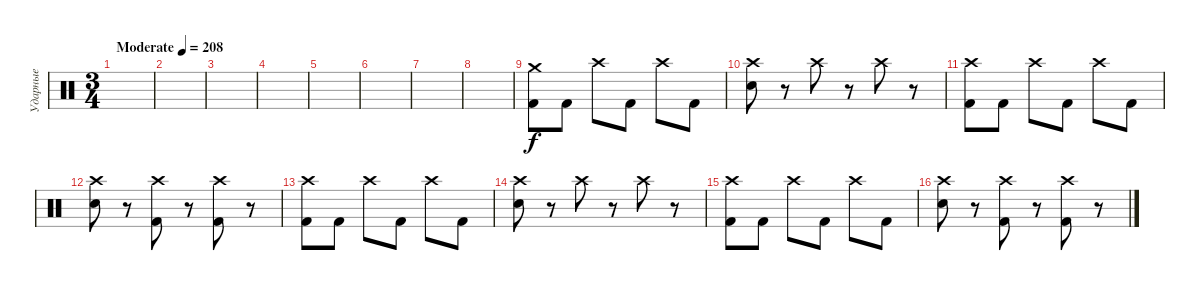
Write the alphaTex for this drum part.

\track ("Ударные" "Ударные") {instrument percussion}
\staff {score}
\articulation defaults
\ts (3 4)
\tempo (208 "Moderate")
\clef neutral
\ks c
|
|
|
|
|
|
|
|
("Crash medium (hit)" "Kick (hit) 2").8 "Kick (hit) 2".8 "Crash high (hit)".8 "Kick (hit) 2".8 "Crash high (hit)".8 "Kick (hit) 2".8 |
("Crash high (hit)" "Electric Snare (hit)").8 r.8 "Crash high (hit)".8 r.8 "Crash high (hit)".8 r.8 |
("Crash high (hit)" "Kick (hit) 2").8 "Kick (hit) 2".8 "Crash high (hit)".8 "Kick (hit) 2".8 "Crash high (hit)".8 "Kick (hit) 2".8 |
("Crash high (hit)" "Electric Snare (hit)").8 r.8 ("Crash high (hit)" "Kick (hit) 2").8 r.8 ("Crash high (hit)" "Kick (hit) 2").8 r.8 |
("Crash high (hit)" "Kick (hit) 2").8 "Kick (hit) 2".8 "Crash high (hit)".8 "Kick (hit) 2".8 "Crash high (hit)".8 "Kick (hit) 2".8 |
("Crash high (hit)" "Electric Snare (hit)").8 r.8 "Crash high (hit)".8 r.8 "Crash high (hit)".8 r.8 |
("Crash high (hit)" "Kick (hit) 2").8 "Kick (hit) 2".8 "Crash high (hit)".8 "Kick (hit) 2".8 "Crash high (hit)".8 "Kick (hit) 2".8 |
("Crash high (hit)" "Electric Snare (hit)").8 r.8 ("Crash high (hit)" "Kick (hit) 2").8 r.8 ("Crash high (hit)" "Kick (hit) 2").8 r.8
